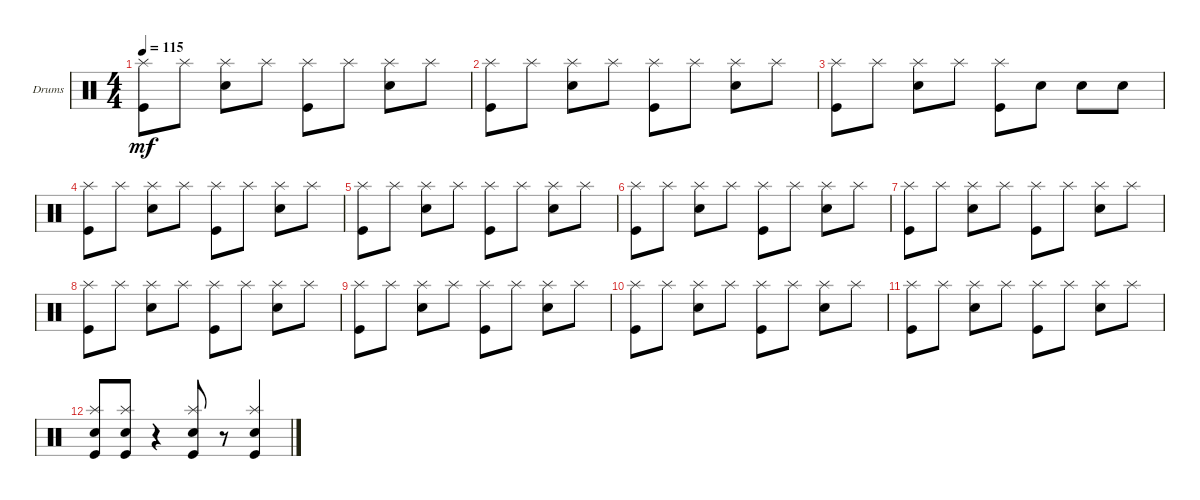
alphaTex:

\defaultSystemsLayout 4
\bracketExtendMode groupsimilarinstruments
\firstSystemTrackNameOrientation horizontal
\otherSystemsTrackNameOrientation horizontal
\track ("Drumkit" "Drums") {instrument percussion}
\staff {score}
\articulation defaults
\ts (4 4)
\tempo 115
\clef neutral
\ks c
("Kick (hit)" "Splash (hit)").8{dy mf} "Splash (hit)".8 ("Snare (hit) 2" "Splash (hit)").8 "Splash (hit)".8 ("Kick (hit)" "Splash (hit)").8 "Splash (hit)".8 ("Snare (hit) 2" "Splash (hit)").8 "Splash (hit)".8 |
("Kick (hit)" "Splash (hit)").8 "Splash (hit)".8 ("Snare (hit) 2" "Splash (hit)").8 "Splash (hit)".8 ("Kick (hit)" "Splash (hit)").8 "Splash (hit)".8 ("Snare (hit) 2" "Splash (hit)").8 "Splash (hit)".8 |
("Kick (hit)" "Splash (hit)").8 "Splash (hit)".8 ("Snare (hit) 2" "Splash (hit)").8 "Splash (hit)".8 ("Kick (hit)" "Splash (hit)").8 "Snare (hit) 2".8 "Snare (hit) 2".8 "Snare (hit) 2".8 |
("Kick (hit)" "Splash (hit)").8 "Splash (hit)".8 ("Snare (hit) 2" "Splash (hit)").8 "Splash (hit)".8 ("Kick (hit)" "Splash (hit)").8 "Splash (hit)".8 ("Snare (hit) 2" "Splash (hit)").8 "Splash (hit)".8 |
("Kick (hit)" "Splash (hit)").8 "Splash (hit)".8 ("Snare (hit) 2" "Splash (hit)").8 "Splash (hit)".8 ("Kick (hit)" "Splash (hit)").8 "Splash (hit)".8 ("Snare (hit) 2" "Splash (hit)").8 "Splash (hit)".8 |
("Kick (hit)" "Splash (hit)").8 "Splash (hit)".8 ("Snare (hit) 2" "Splash (hit)").8 "Splash (hit)".8 ("Kick (hit)" "Splash (hit)").8 "Splash (hit)".8 ("Snare (hit) 2" "Splash (hit)").8 "Splash (hit)".8 |
("Kick (hit)" "Splash (hit)").8 "Splash (hit)".8 ("Snare (hit) 2" "Splash (hit)").8 "Splash (hit)".8 ("Kick (hit)" "Splash (hit)").8 "Splash (hit)".8 ("Snare (hit) 2" "Splash (hit)").8 "Splash (hit)".8 |
("Kick (hit)" "Splash (hit)").8 "Splash (hit)".8 ("Snare (hit) 2" "Splash (hit)").8 "Splash (hit)".8 ("Kick (hit)" "Splash (hit)").8 "Splash (hit)".8 ("Snare (hit) 2" "Splash (hit)").8 "Splash (hit)".8 |
("Kick (hit)" "Splash (hit)").8 "Splash (hit)".8 ("Snare (hit) 2" "Splash (hit)").8 "Splash (hit)".8 ("Kick (hit)" "Splash (hit)").8 "Splash (hit)".8 ("Snare (hit) 2" "Splash (hit)").8 "Splash (hit)".8 |
("Kick (hit)" "Splash (hit)").8 "Splash (hit)".8 ("Snare (hit) 2" "Splash (hit)").8 "Splash (hit)".8 ("Kick (hit)" "Splash (hit)").8 "Splash (hit)".8 ("Snare (hit) 2" "Splash (hit)").8 "Splash (hit)".8 |
("Kick (hit)" "Splash (hit)").8 "Splash (hit)".8 ("Snare (hit) 2" "Splash (hit)").8 "Splash (hit)".8 ("Kick (hit)" "Splash (hit)").8 "Splash (hit)".8 ("Snare (hit) 2" "Splash (hit)").8 "Splash (hit)".8 |
("Kick (hit)" "Snare (hit) 2" "Splash (hit)").8 ("Kick (hit)" "Snare (hit) 2" "Splash (hit)").8 r.4 ("Kick (hit)" "Snare (hit) 2" "Splash (hit)").8 r.8 ("Kick (hit)" "Snare (hit) 2" "Splash (hit)").4
